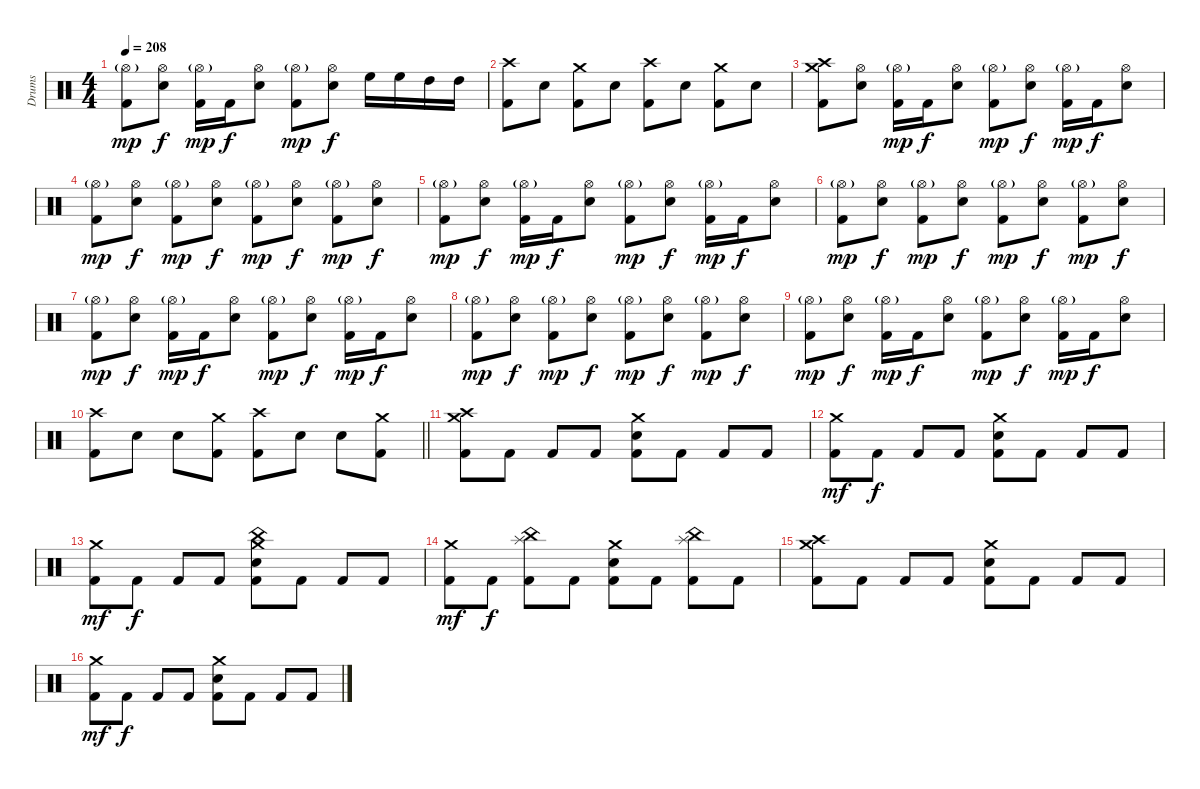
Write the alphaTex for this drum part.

\track ("Drums" "Drums") {instrument percussion}
\staff {score}
\articulation defaults
\ts (4 4)
\tempo 208
\clef neutral
\ks c
("Hi-Hat (open)"{g} "Kick (hit) 2").8{dy mp} ("Hi-Hat (open)" "Electric Snare (hit)").8{dy f} ("Hi-Hat (open)"{g} "Kick (hit) 2").16{dy mp} "Kick (hit) 2".16{dy f} ("Hi-Hat (open)" "Electric Snare (hit)").8 ("Hi-Hat (open)"{g} "Kick (hit) 2").8{dy mp} ("Hi-Hat (open)" "Electric Snare (hit)").8{dy f} "High Floor Tom (hit)".16 "High Floor Tom (hit)".16 "High Tom (hit)".16 "High Tom (hit)".16 |
("Crash high (hit)" "Kick (hit) 2").8 "Electric Snare (hit)".8 ("Crash medium (hit)" "Kick (hit) 2").8 "Electric Snare (hit)".8 ("Crash high (hit)" "Kick (hit) 2").8 "Electric Snare (hit)".8 ("Crash medium (hit)" "Kick (hit) 2").8 "Electric Snare (hit)".8 |
("Crash high (hit)" "Crash medium (hit)" "Kick (hit) 2").8 ("Hi-Hat (open)" "Electric Snare (hit)").8 ("Hi-Hat (open)"{g} "Kick (hit) 2").16{dy mp} "Kick (hit) 2".16{dy f} ("Hi-Hat (open)" "Electric Snare (hit)").8 ("Hi-Hat (open)"{g} "Kick (hit) 2").8{dy mp} ("Hi-Hat (open)" "Electric Snare (hit)").8{dy f} ("Hi-Hat (open)"{g} "Kick (hit) 2").16{dy mp} "Kick (hit) 2".16{dy f} ("Hi-Hat (open)" "Electric Snare (hit)").8 |
("Hi-Hat (open)"{g} "Kick (hit) 2").8{dy mp} ("Hi-Hat (open)" "Electric Snare (hit)").8{dy f} ("Hi-Hat (open)"{g} "Kick (hit) 2").8{dy mp} ("Hi-Hat (open)" "Electric Snare (hit)").8{dy f} ("Hi-Hat (open)"{g} "Kick (hit) 2").8{dy mp} ("Hi-Hat (open)" "Electric Snare (hit)").8{dy f} ("Hi-Hat (open)"{g} "Kick (hit) 2").8{dy mp} ("Hi-Hat (open)" "Electric Snare (hit)").8{dy f} |
("Hi-Hat (open)"{g} "Kick (hit) 2").8{dy mp} ("Hi-Hat (open)" "Electric Snare (hit)").8{dy f} ("Hi-Hat (open)"{g} "Kick (hit) 2").16{dy mp} "Kick (hit) 2".16{dy f} ("Hi-Hat (open)" "Electric Snare (hit)").8 ("Hi-Hat (open)"{g} "Kick (hit) 2").8{dy mp} ("Hi-Hat (open)" "Electric Snare (hit)").8{dy f} ("Hi-Hat (open)"{g} "Kick (hit) 2").16{dy mp} "Kick (hit) 2".16{dy f} ("Hi-Hat (open)" "Electric Snare (hit)").8 |
("Hi-Hat (open)"{g} "Kick (hit) 2").8{dy mp} ("Hi-Hat (open)" "Electric Snare (hit)").8{dy f} ("Hi-Hat (open)"{g} "Kick (hit) 2").8{dy mp} ("Hi-Hat (open)" "Electric Snare (hit)").8{dy f} ("Hi-Hat (open)"{g} "Kick (hit) 2").8{dy mp} ("Hi-Hat (open)" "Electric Snare (hit)").8{dy f} ("Hi-Hat (open)"{g} "Kick (hit) 2").8{dy mp} ("Hi-Hat (open)" "Electric Snare (hit)").8{dy f} |
("Hi-Hat (open)"{g} "Kick (hit) 2").8{dy mp} ("Hi-Hat (open)" "Electric Snare (hit)").8{dy f} ("Hi-Hat (open)"{g} "Kick (hit) 2").16{dy mp} "Kick (hit) 2".16{dy f} ("Hi-Hat (open)" "Electric Snare (hit)").8 ("Hi-Hat (open)"{g} "Kick (hit) 2").8{dy mp} ("Hi-Hat (open)" "Electric Snare (hit)").8{dy f} ("Hi-Hat (open)"{g} "Kick (hit) 2").16{dy mp} "Kick (hit) 2".16{dy f} ("Hi-Hat (open)" "Electric Snare (hit)").8 |
("Hi-Hat (open)"{g} "Kick (hit) 2").8{dy mp} ("Hi-Hat (open)" "Electric Snare (hit)").8{dy f} ("Hi-Hat (open)"{g} "Kick (hit) 2").8{dy mp} ("Hi-Hat (open)" "Electric Snare (hit)").8{dy f} ("Hi-Hat (open)"{g} "Kick (hit) 2").8{dy mp} ("Hi-Hat (open)" "Electric Snare (hit)").8{dy f} ("Hi-Hat (open)"{g} "Kick (hit) 2").8{dy mp} ("Hi-Hat (open)" "Electric Snare (hit)").8{dy f} |
("Hi-Hat (open)"{g} "Kick (hit) 2").8{dy mp} ("Hi-Hat (open)" "Electric Snare (hit)").8{dy f} ("Hi-Hat (open)"{g} "Kick (hit) 2").16{dy mp} "Kick (hit) 2".16{dy f} ("Hi-Hat (open)" "Electric Snare (hit)").8 ("Hi-Hat (open)"{g} "Kick (hit) 2").8{dy mp} ("Hi-Hat (open)" "Electric Snare (hit)").8{dy f} ("Hi-Hat (open)"{g} "Kick (hit) 2").16{dy mp} "Kick (hit) 2".16{dy f} ("Hi-Hat (open)" "Electric Snare (hit)").8 |
\barLineRight lightlight
("Crash high (hit)" "Kick (hit) 2").8 "Electric Snare (hit)".8 "Electric Snare (hit)".8 ("Crash medium (hit)" "Kick (hit) 2").8 ("Crash high (hit)" "Kick (hit) 2").8 "Electric Snare (hit)".8 "Electric Snare (hit)".8 ("Crash medium (hit)" "Kick (hit) 2").8 |
("Crash high (hit)" "Crash medium (hit)" "Kick (hit) 2").8 "Kick (hit) 2".8 "Kick (hit) 2".8 "Kick (hit) 2".8 ("Crash medium (hit)" "Electric Snare (hit)" "Kick (hit) 2").8 "Kick (hit) 2".8 "Kick (hit) 2".8 "Kick (hit) 2".8 |
("Crash medium (hit)" "Kick (hit) 2").8{dy mf} "Kick (hit) 2".8{dy f} "Kick (hit) 2".8 "Kick (hit) 2".8 ("Crash medium (hit)" "Electric Snare (hit)" "Kick (hit) 2").8 "Kick (hit) 2".8 "Kick (hit) 2".8 "Kick (hit) 2".8 |
("Crash medium (hit)" "Kick (hit) 2").8{dy mf} "Kick (hit) 2".8{dy f} "Kick (hit) 2".8 "Kick (hit) 2".8 ("China (hit)" "Crash medium (hit)" "Electric Snare (hit)" "Kick (hit) 2").8 "Kick (hit) 2".8 "Kick (hit) 2".8 "Kick (hit) 2".8 |
("Crash medium (hit)" "Kick (hit) 2").8{dy mf} "Kick (hit) 2".8{dy f} ("China (hit)" "Splash (hit)" "Kick (hit) 2").8 "Kick (hit) 2".8 ("Crash medium (hit)" "Electric Snare (hit)" "Kick (hit) 2").8 "Kick (hit) 2".8 ("China (hit)" "Splash (hit)" "Kick (hit) 2").8 "Kick (hit) 2".8 |
("Crash high (hit)" "Crash medium (hit)" "Kick (hit) 2").8 "Kick (hit) 2".8 "Kick (hit) 2".8 "Kick (hit) 2".8 ("Crash medium (hit)" "Electric Snare (hit)" "Kick (hit) 2").8 "Kick (hit) 2".8 "Kick (hit) 2".8 "Kick (hit) 2".8 |
("Crash medium (hit)" "Kick (hit) 2").8{dy mf} "Kick (hit) 2".8{dy f} "Kick (hit) 2".8 "Kick (hit) 2".8 ("Crash medium (hit)" "Electric Snare (hit)" "Kick (hit) 2").8 "Kick (hit) 2".8 "Kick (hit) 2".8 "Kick (hit) 2".8
